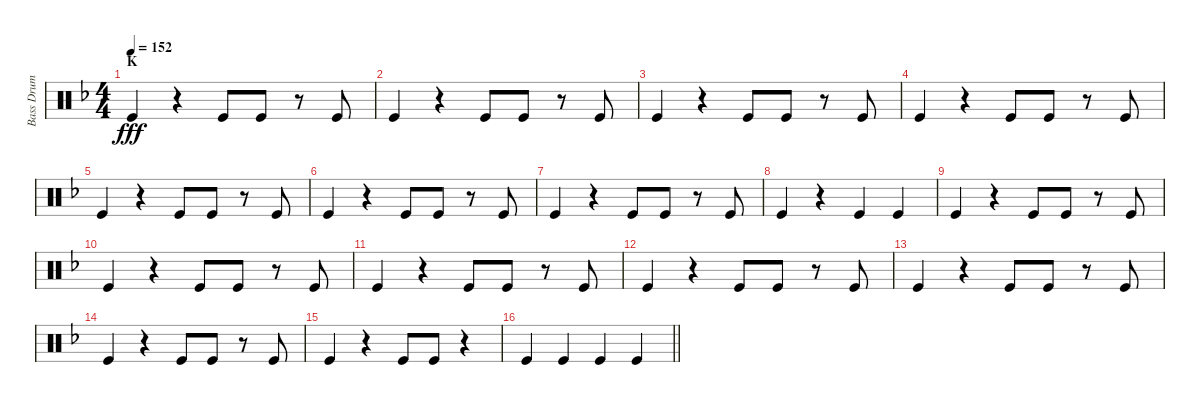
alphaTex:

\track ("Bass Drum" "Bass Drum") {instrument percussion}
\staff {score}
\articulation defaults
\ts (4 4)
\section ("" "K")
\tempo 152
\clef neutral
\ks f "Kick (hit)".4{dy fff}
r.4 "Kick (hit)".8 "Kick (hit)".8 r.8 "Kick (hit)".8 |
"Kick (hit)".4 r.4 "Kick (hit)".8 "Kick (hit)".8 r.8 "Kick (hit)".8 |
"Kick (hit)".4 r.4 "Kick (hit)".8 "Kick (hit)".8 r.8 "Kick (hit)".8 |
"Kick (hit)".4 r.4 "Kick (hit)".8 "Kick (hit)".8 r.8 "Kick (hit)".8 |
"Kick (hit)".4 r.4 "Kick (hit)".8 "Kick (hit)".8 r.8 "Kick (hit)".8 |
"Kick (hit)".4 r.4 "Kick (hit)".8 "Kick (hit)".8 r.8 "Kick (hit)".8 |
"Kick (hit)".4 r.4 "Kick (hit)".8 "Kick (hit)".8 r.8 "Kick (hit)".8 |
"Kick (hit)".4 r.4 "Kick (hit)".4 "Kick (hit)".4 |
"Kick (hit)".4 r.4 "Kick (hit)".8 "Kick (hit)".8 r.8 "Kick (hit)".8 |
"Kick (hit)".4 r.4 "Kick (hit)".8 "Kick (hit)".8 r.8 "Kick (hit)".8 |
"Kick (hit)".4 r.4 "Kick (hit)".8 "Kick (hit)".8 r.8 "Kick (hit)".8 |
"Kick (hit)".4 r.4 "Kick (hit)".8 "Kick (hit)".8 r.8 "Kick (hit)".8 |
"Kick (hit)".4 r.4 "Kick (hit)".8 "Kick (hit)".8 r.8 "Kick (hit)".8 |
"Kick (hit)".4 r.4 "Kick (hit)".8 "Kick (hit)".8 r.8 "Kick (hit)".8 |
"Kick (hit)".4 r.4 "Kick (hit)".8 "Kick (hit)".8 r.4 |
\barLineRight lightlight "Kick (hit)".4 "Kick (hit)".4 "Kick (hit)".4 "Kick (hit)".4
